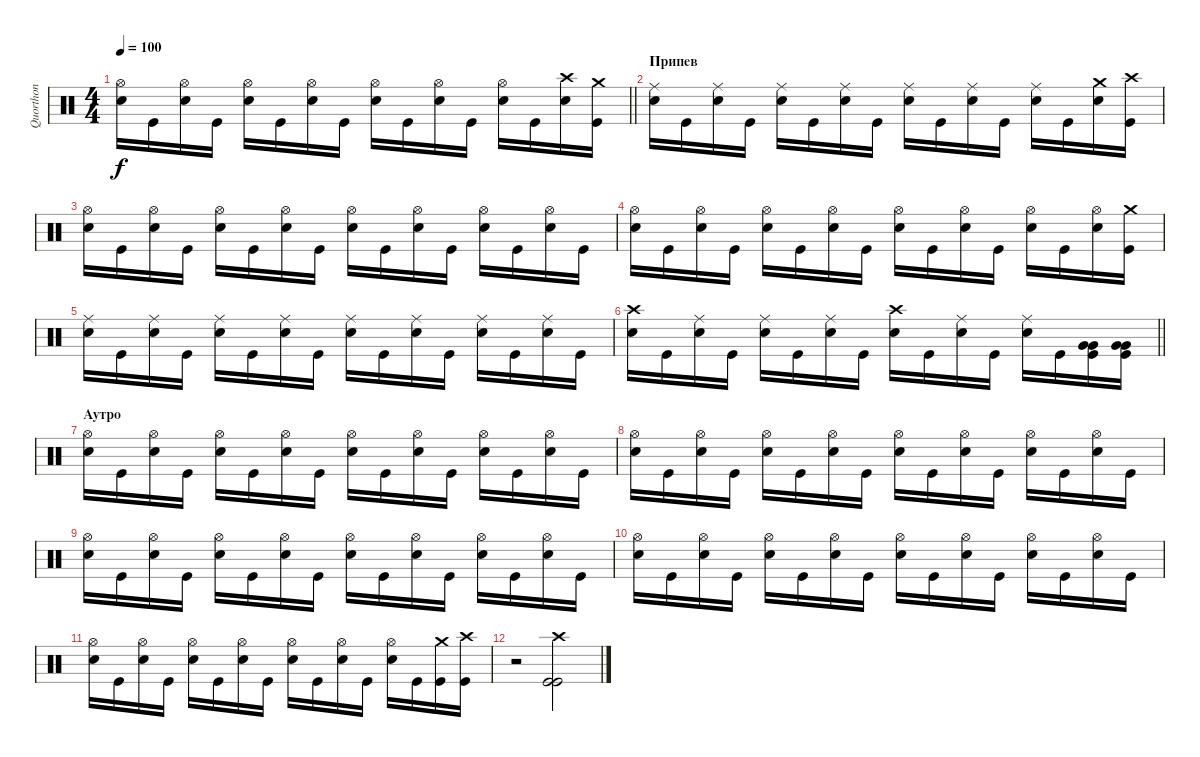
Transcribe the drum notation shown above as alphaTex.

\track ("Quorthon" "Quorthon") {instrument percussion}
\staff {score}
\articulation defaults
\ts (4 4)
\tempo 100
\clef neutral
\barLineRight lightlight
\ks c
("Hi-Hat (open)" "Snare (hit) 2").16{dy f} "Kick (hit)".16 ("Hi-Hat (open)" "Snare (hit) 2").16 "Kick (hit)".16 ("Hi-Hat (open)" "Snare (hit) 2").16 "Kick (hit)".16 ("Hi-Hat (open)" "Snare (hit) 2").16 "Kick (hit)".16 ("Hi-Hat (open)" "Snare (hit) 2").16 "Kick (hit)".16 ("Hi-Hat (open)" "Snare (hit) 2").16 "Kick (hit)".16 ("Hi-Hat (open)" "Snare (hit) 2").16 "Kick (hit)".16 ("Crash high (hit)" "Snare (hit) 2").16 ("Crash medium (hit)" "Kick (hit)").16 |
\section ("" "Припев")
("Ride (middle)" "Snare (hit) 2").16 "Kick (hit)".16 ("Ride (middle)" "Snare (hit) 2").16 "Kick (hit)".16 ("Ride (middle)" "Snare (hit) 2").16 "Kick (hit)".16 ("Ride (middle)" "Snare (hit) 2").16 "Kick (hit)".16 ("Ride (middle)" "Snare (hit) 2").16 "Kick (hit)".16 ("Ride (middle)" "Snare (hit) 2").16 "Kick (hit)".16 ("Ride (middle)" "Snare (hit) 2").16 "Kick (hit)".16 ("Crash medium (hit)" "Snare (hit) 2").16 ("Crash high (hit)" "Kick (hit)").16 |
("Hi-Hat (open)" "Snare (hit) 2").16 "Kick (hit)".16 ("Hi-Hat (open)" "Snare (hit) 2").16 "Kick (hit)".16 ("Hi-Hat (open)" "Snare (hit) 2").16 "Kick (hit)".16 ("Hi-Hat (open)" "Snare (hit) 2").16 "Kick (hit)".16 ("Hi-Hat (open)" "Snare (hit) 2").16 "Kick (hit)".16 ("Hi-Hat (open)" "Snare (hit) 2").16 "Kick (hit)".16 ("Hi-Hat (open)" "Snare (hit) 2").16 "Kick (hit)".16 ("Hi-Hat (open)" "Snare (hit) 2").16 "Kick (hit)".16 |
("Hi-Hat (open)" "Snare (hit) 2").16 "Kick (hit)".16 ("Hi-Hat (open)" "Snare (hit) 2").16 "Kick (hit)".16 ("Hi-Hat (open)" "Snare (hit) 2").16 "Kick (hit)".16 ("Hi-Hat (open)" "Snare (hit) 2").16 "Kick (hit)".16 ("Hi-Hat (open)" "Snare (hit) 2").16 "Kick (hit)".16 ("Hi-Hat (open)" "Snare (hit) 2").16 "Kick (hit)".16 ("Hi-Hat (open)" "Snare (hit) 2").16 "Kick (hit)".16 ("Hi-Hat (open)" "Snare (hit) 2").16 ("Crash medium (hit)" "Kick (hit)").16 |
("Ride (middle)" "Snare (hit) 2").16 "Kick (hit)".16 ("Ride (middle)" "Snare (hit) 2").16 "Kick (hit)".16 ("Ride (middle)" "Snare (hit) 2").16 "Kick (hit)".16 ("Ride (middle)" "Snare (hit) 2").16 "Kick (hit)".16 ("Ride (middle)" "Snare (hit) 2").16 "Kick (hit)".16 ("Ride (middle)" "Snare (hit) 2").16 "Kick (hit)".16 ("Ride (middle)" "Snare (hit) 2").16 "Kick (hit)".16 ("Ride (middle)" "Snare (hit) 2").16 "Kick (hit)".16 |
\barLineRight lightlight
("Crash high (hit)" "Snare (hit) 2").16 "Kick (hit)".16 ("Ride (middle)" "Snare (hit) 2").16 "Kick (hit)".16 ("Ride (middle)" "Snare (hit) 2").16 "Kick (hit)".16 ("Ride (middle)" "Snare (hit) 2").16 "Kick (hit)".16 ("Crash high (hit)" "Snare (hit) 2").16 "Kick (hit)".16 ("Ride (middle)" "Snare (hit) 2").16 "Kick (hit)".16 ("Ride (middle)" "Snare (hit) 2").16 "Kick (hit)".16 ("Very Low Tom (hit)" "Very Low Tom (hit)" "Kick (hit)").16 ("Very Low Tom (hit)" "Very Low Tom (hit)" "Kick (hit)").16 |
\section ("" "Аутро")
("Hi-Hat (open)" "Snare (hit) 2").16 "Kick (hit)".16 ("Hi-Hat (open)" "Snare (hit) 2").16 "Kick (hit)".16 ("Hi-Hat (open)" "Snare (hit) 2").16 "Kick (hit)".16 ("Hi-Hat (open)" "Snare (hit) 2").16 "Kick (hit)".16 ("Hi-Hat (open)" "Snare (hit) 2").16 "Kick (hit)".16 ("Hi-Hat (open)" "Snare (hit) 2").16 "Kick (hit)".16 ("Hi-Hat (open)" "Snare (hit) 2").16 "Kick (hit)".16 ("Hi-Hat (open)" "Snare (hit) 2").16 "Kick (hit)".16 |
("Hi-Hat (open)" "Snare (hit) 2").16 "Kick (hit)".16 ("Hi-Hat (open)" "Snare (hit) 2").16 "Kick (hit)".16 ("Hi-Hat (open)" "Snare (hit) 2").16 "Kick (hit)".16 ("Hi-Hat (open)" "Snare (hit) 2").16 "Kick (hit)".16 ("Hi-Hat (open)" "Snare (hit) 2").16 "Kick (hit)".16 ("Hi-Hat (open)" "Snare (hit) 2").16 "Kick (hit)".16 ("Hi-Hat (open)" "Snare (hit) 2").16 "Kick (hit)".16 ("Hi-Hat (open)" "Snare (hit) 2").16 "Kick (hit)".16 |
("Hi-Hat (open)" "Snare (hit) 2").16 "Kick (hit)".16 ("Hi-Hat (open)" "Snare (hit) 2").16 "Kick (hit)".16 ("Hi-Hat (open)" "Snare (hit) 2").16 "Kick (hit)".16 ("Hi-Hat (open)" "Snare (hit) 2").16 "Kick (hit)".16 ("Hi-Hat (open)" "Snare (hit) 2").16 "Kick (hit)".16 ("Hi-Hat (open)" "Snare (hit) 2").16 "Kick (hit)".16 ("Hi-Hat (open)" "Snare (hit) 2").16 "Kick (hit)".16 ("Hi-Hat (open)" "Snare (hit) 2").16 "Kick (hit)".16 |
("Hi-Hat (open)" "Snare (hit) 2").16 "Kick (hit)".16 ("Hi-Hat (open)" "Snare (hit) 2").16 "Kick (hit)".16 ("Hi-Hat (open)" "Snare (hit) 2").16 "Kick (hit)".16 ("Hi-Hat (open)" "Snare (hit) 2").16 "Kick (hit)".16 ("Hi-Hat (open)" "Snare (hit) 2").16 "Kick (hit)".16 ("Hi-Hat (open)" "Snare (hit) 2").16 "Kick (hit)".16 ("Hi-Hat (open)" "Snare (hit) 2").16 "Kick (hit)".16 ("Hi-Hat (open)" "Snare (hit) 2").16 "Kick (hit)".16 |
("Hi-Hat (open)" "Snare (hit) 2").16 "Kick (hit)".16 ("Hi-Hat (open)" "Snare (hit) 2").16 "Kick (hit)".16 ("Hi-Hat (open)" "Snare (hit) 2").16 "Kick (hit)".16 ("Hi-Hat (open)" "Snare (hit) 2").16 "Kick (hit)".16 ("Hi-Hat (open)" "Snare (hit) 2").16 "Kick (hit)".16 ("Hi-Hat (open)" "Snare (hit) 2").16 "Kick (hit)".16 ("Hi-Hat (open)" "Snare (hit) 2").16 "Kick (hit)".16 ("Crash medium (hit)" "Kick (hit)").16 ("Crash high (hit)" "Kick (hit)").16 |
r.2 ("Crash high (hit)" "Kick (hit)" "Kick (hit)").2
